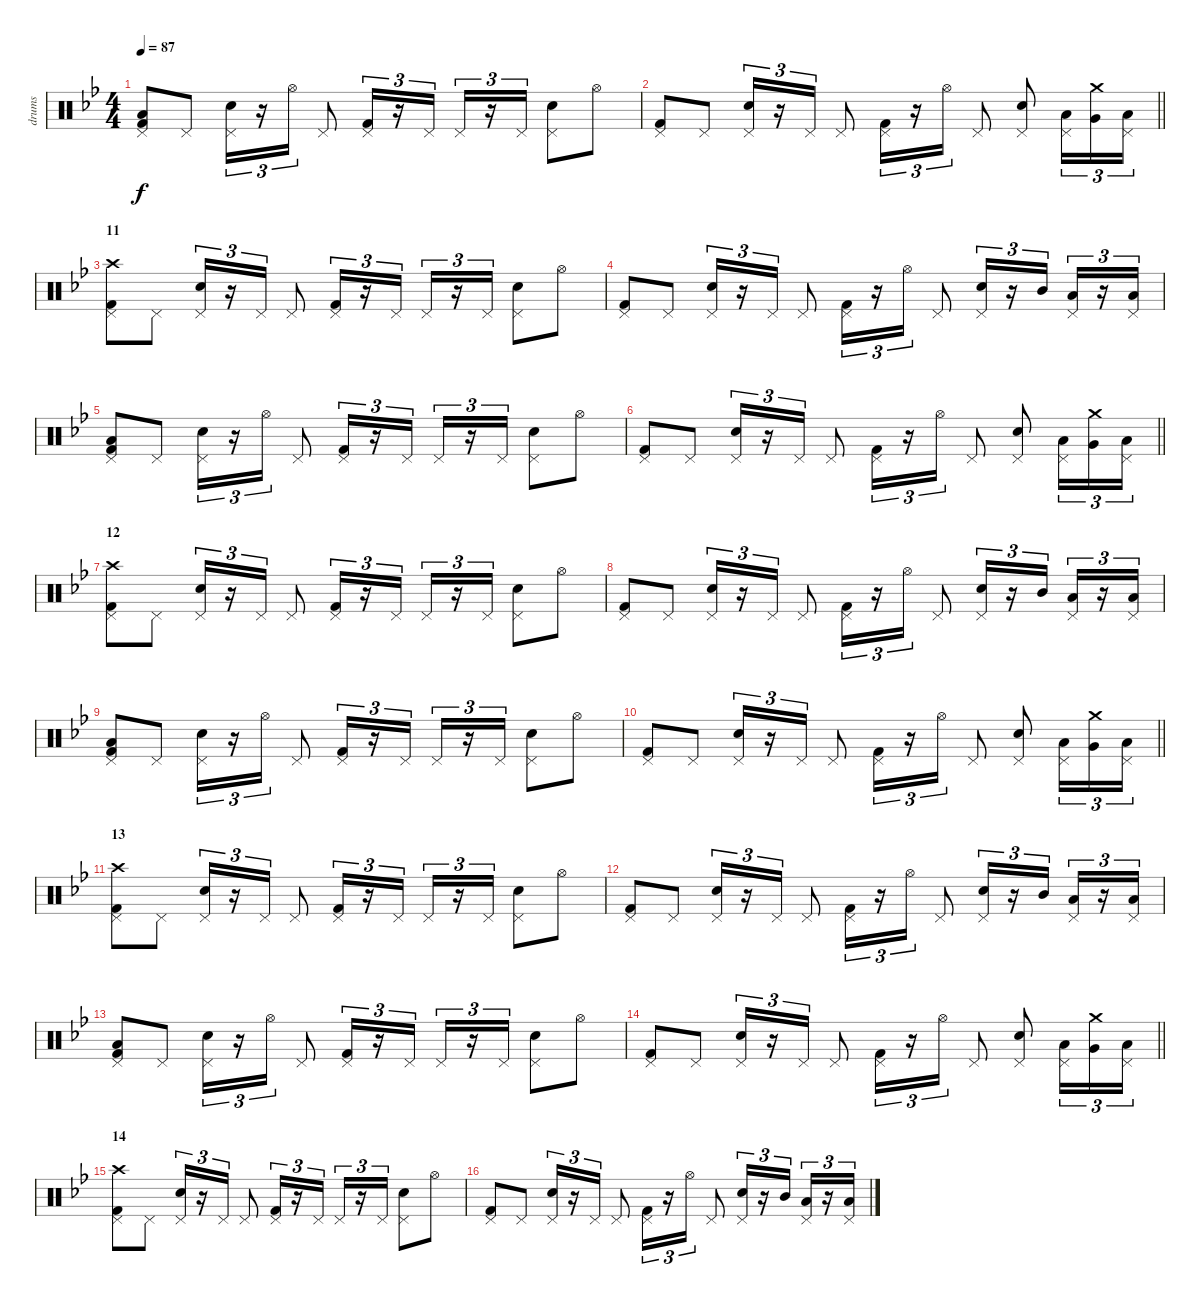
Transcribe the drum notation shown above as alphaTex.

\track ("drums" "drums") {instrument percussion}
\staff {score}
\articulation defaults
\ts (4 4)
\tempo 87
\clef neutral
\ks gminor
("Pedal Hi-Hat (hit)" "Low Floor Tom (hit)" "Kick (hit) 2").8{dy f} "Pedal Hi-Hat (hit)".8 ("Pedal Hi-Hat (hit)" "Electric Snare (hit)").16{tu (3 2)} r.16{tu (3 2)} "Hi-Hat (open)".16{tu (3 2)} "Pedal Hi-Hat (hit)".8 ("Pedal Hi-Hat (hit)" "Kick (hit) 2").16{tu (3 2)} r.16{tu (3 2)} "Pedal Hi-Hat (hit)".16{tu (3 2)} "Pedal Hi-Hat (hit)".16{tu (3 2)} r.16{tu (3 2)} "Pedal Hi-Hat (hit)".16{tu (3 2)} ("Pedal Hi-Hat (hit)" "Electric Snare (hit)").8 "Hi-Hat (open)".8 |
\barLineRight lightlight
("Pedal Hi-Hat (hit)" "Kick (hit) 2").8 "Pedal Hi-Hat (hit)".8 ("Pedal Hi-Hat (hit)" "Electric Snare (hit)").16{tu (3 2)} r.16{tu (3 2)} "Pedal Hi-Hat (hit)".16{tu (3 2)} "Pedal Hi-Hat (hit)".8 ("Pedal Hi-Hat (hit)" "Kick (hit) 2").16{tu (3 2)} r.16{tu (3 2)} "Hi-Hat (open)".16{tu (3 2)} "Pedal Hi-Hat (hit)".8 ("Pedal Hi-Hat (hit)" "Electric Snare (hit)").8 ("Pedal Hi-Hat (hit)" "Low Tom (hit)").16{tu (3 2)} ("Crash medium (hit)" "Very Low Tom (hit)").16{tu (3 2)} ("Pedal Hi-Hat (hit)" "Low Floor Tom (hit)").16{tu (3 2)} |
\section ("" "11")
("Crash high (hit)" "Pedal Hi-Hat (hit)" "Kick (hit) 2").8 "Pedal Hi-Hat (hit)".8 ("Pedal Hi-Hat (hit)" "Electric Snare (hit)").16{tu (3 2)} r.16{tu (3 2)} "Pedal Hi-Hat (hit)".16{tu (3 2)} "Pedal Hi-Hat (hit)".8 ("Pedal Hi-Hat (hit)" "Kick (hit) 2").16{tu (3 2)} r.16{tu (3 2)} "Pedal Hi-Hat (hit)".16{tu (3 2)} "Pedal Hi-Hat (hit)".16{tu (3 2)} r.16{tu (3 2)} "Pedal Hi-Hat (hit)".16{tu (3 2)} ("Pedal Hi-Hat (hit)" "Electric Snare (hit)").8 "Hi-Hat (open)".8 |
("Pedal Hi-Hat (hit)" "Kick (hit) 2").8 "Pedal Hi-Hat (hit)".8 ("Pedal Hi-Hat (hit)" "Electric Snare (hit)").16{tu (3 2)} r.16{tu (3 2)} "Pedal Hi-Hat (hit)".16{tu (3 2)} "Pedal Hi-Hat (hit)".8 ("Pedal Hi-Hat (hit)" "Kick (hit) 2").16{tu (3 2)} r.16{tu (3 2)} "Hi-Hat (open)".16{tu (3 2)} "Pedal Hi-Hat (hit)".8 ("Pedal Hi-Hat (hit)" "Electric Snare (hit)").16{tu (3 2)} r.16{tu (3 2)} "Mid Tom (hit)".16{tu (3 2)} ("Pedal Hi-Hat (hit)" "Low Tom (hit)").16{tu (3 2)} r.16{tu (3 2)} ("Pedal Hi-Hat (hit)" "Low Floor Tom (hit)").16{tu (3 2)} |
("Pedal Hi-Hat (hit)" "Low Floor Tom (hit)" "Kick (hit) 2").8 "Pedal Hi-Hat (hit)".8 ("Pedal Hi-Hat (hit)" "Electric Snare (hit)").16{tu (3 2)} r.16{tu (3 2)} "Hi-Hat (open)".16{tu (3 2)} "Pedal Hi-Hat (hit)".8 ("Pedal Hi-Hat (hit)" "Kick (hit) 2").16{tu (3 2)} r.16{tu (3 2)} "Pedal Hi-Hat (hit)".16{tu (3 2)} "Pedal Hi-Hat (hit)".16{tu (3 2)} r.16{tu (3 2)} "Pedal Hi-Hat (hit)".16{tu (3 2)} ("Pedal Hi-Hat (hit)" "Electric Snare (hit)").8 "Hi-Hat (open)".8 |
\barLineRight lightlight
("Pedal Hi-Hat (hit)" "Kick (hit) 2").8 "Pedal Hi-Hat (hit)".8 ("Pedal Hi-Hat (hit)" "Electric Snare (hit)").16{tu (3 2)} r.16{tu (3 2)} "Pedal Hi-Hat (hit)".16{tu (3 2)} "Pedal Hi-Hat (hit)".8 ("Pedal Hi-Hat (hit)" "Kick (hit) 2").16{tu (3 2)} r.16{tu (3 2)} "Hi-Hat (open)".16{tu (3 2)} "Pedal Hi-Hat (hit)".8 ("Pedal Hi-Hat (hit)" "Electric Snare (hit)").8 ("Pedal Hi-Hat (hit)" "Low Tom (hit)").16{tu (3 2)} ("Crash medium (hit)" "Very Low Tom (hit)").16{tu (3 2)} ("Pedal Hi-Hat (hit)" "Low Floor Tom (hit)").16{tu (3 2)} |
\section ("" "12")
("Crash high (hit)" "Pedal Hi-Hat (hit)" "Kick (hit) 2").8 "Pedal Hi-Hat (hit)".8 ("Pedal Hi-Hat (hit)" "Electric Snare (hit)").16{tu (3 2)} r.16{tu (3 2)} "Pedal Hi-Hat (hit)".16{tu (3 2)} "Pedal Hi-Hat (hit)".8 ("Pedal Hi-Hat (hit)" "Kick (hit) 2").16{tu (3 2)} r.16{tu (3 2)} "Pedal Hi-Hat (hit)".16{tu (3 2)} "Pedal Hi-Hat (hit)".16{tu (3 2)} r.16{tu (3 2)} "Pedal Hi-Hat (hit)".16{tu (3 2)} ("Pedal Hi-Hat (hit)" "Electric Snare (hit)").8 "Hi-Hat (open)".8 |
("Pedal Hi-Hat (hit)" "Kick (hit) 2").8 "Pedal Hi-Hat (hit)".8 ("Pedal Hi-Hat (hit)" "Electric Snare (hit)").16{tu (3 2)} r.16{tu (3 2)} "Pedal Hi-Hat (hit)".16{tu (3 2)} "Pedal Hi-Hat (hit)".8 ("Pedal Hi-Hat (hit)" "Kick (hit) 2").16{tu (3 2)} r.16{tu (3 2)} "Hi-Hat (open)".16{tu (3 2)} "Pedal Hi-Hat (hit)".8 ("Pedal Hi-Hat (hit)" "Electric Snare (hit)").16{tu (3 2)} r.16{tu (3 2)} "Mid Tom (hit)".16{tu (3 2)} ("Pedal Hi-Hat (hit)" "Low Tom (hit)").16{tu (3 2)} r.16{tu (3 2)} ("Pedal Hi-Hat (hit)" "Low Floor Tom (hit)").16{tu (3 2)} |
("Pedal Hi-Hat (hit)" "Low Floor Tom (hit)" "Kick (hit) 2").8 "Pedal Hi-Hat (hit)".8 ("Pedal Hi-Hat (hit)" "Electric Snare (hit)").16{tu (3 2)} r.16{tu (3 2)} "Hi-Hat (open)".16{tu (3 2)} "Pedal Hi-Hat (hit)".8 ("Pedal Hi-Hat (hit)" "Kick (hit) 2").16{tu (3 2)} r.16{tu (3 2)} "Pedal Hi-Hat (hit)".16{tu (3 2)} "Pedal Hi-Hat (hit)".16{tu (3 2)} r.16{tu (3 2)} "Pedal Hi-Hat (hit)".16{tu (3 2)} ("Pedal Hi-Hat (hit)" "Electric Snare (hit)").8 "Hi-Hat (open)".8 |
\barLineRight lightlight
("Pedal Hi-Hat (hit)" "Kick (hit) 2").8 "Pedal Hi-Hat (hit)".8 ("Pedal Hi-Hat (hit)" "Electric Snare (hit)").16{tu (3 2)} r.16{tu (3 2)} "Pedal Hi-Hat (hit)".16{tu (3 2)} "Pedal Hi-Hat (hit)".8 ("Pedal Hi-Hat (hit)" "Kick (hit) 2").16{tu (3 2)} r.16{tu (3 2)} "Hi-Hat (open)".16{tu (3 2)} "Pedal Hi-Hat (hit)".8 ("Pedal Hi-Hat (hit)" "Electric Snare (hit)").8 ("Pedal Hi-Hat (hit)" "Low Tom (hit)").16{tu (3 2)} ("Crash medium (hit)" "Very Low Tom (hit)").16{tu (3 2)} ("Pedal Hi-Hat (hit)" "Low Floor Tom (hit)").16{tu (3 2)} |
\section ("" "13")
("Crash high (hit)" "Pedal Hi-Hat (hit)" "Kick (hit) 2").8 "Pedal Hi-Hat (hit)".8 ("Pedal Hi-Hat (hit)" "Electric Snare (hit)").16{tu (3 2)} r.16{tu (3 2)} "Pedal Hi-Hat (hit)".16{tu (3 2)} "Pedal Hi-Hat (hit)".8 ("Pedal Hi-Hat (hit)" "Kick (hit) 2").16{tu (3 2)} r.16{tu (3 2)} "Pedal Hi-Hat (hit)".16{tu (3 2)} "Pedal Hi-Hat (hit)".16{tu (3 2)} r.16{tu (3 2)} "Pedal Hi-Hat (hit)".16{tu (3 2)} ("Pedal Hi-Hat (hit)" "Electric Snare (hit)").8 "Hi-Hat (open)".8 |
("Pedal Hi-Hat (hit)" "Kick (hit) 2").8 "Pedal Hi-Hat (hit)".8 ("Pedal Hi-Hat (hit)" "Electric Snare (hit)").16{tu (3 2)} r.16{tu (3 2)} "Pedal Hi-Hat (hit)".16{tu (3 2)} "Pedal Hi-Hat (hit)".8 ("Pedal Hi-Hat (hit)" "Kick (hit) 2").16{tu (3 2)} r.16{tu (3 2)} "Hi-Hat (open)".16{tu (3 2)} "Pedal Hi-Hat (hit)".8 ("Pedal Hi-Hat (hit)" "Electric Snare (hit)").16{tu (3 2)} r.16{tu (3 2)} "Mid Tom (hit)".16{tu (3 2)} ("Pedal Hi-Hat (hit)" "Low Tom (hit)").16{tu (3 2)} r.16{tu (3 2)} ("Pedal Hi-Hat (hit)" "Low Floor Tom (hit)").16{tu (3 2)} |
("Pedal Hi-Hat (hit)" "Low Floor Tom (hit)" "Kick (hit) 2").8 "Pedal Hi-Hat (hit)".8 ("Pedal Hi-Hat (hit)" "Electric Snare (hit)").16{tu (3 2)} r.16{tu (3 2)} "Hi-Hat (open)".16{tu (3 2)} "Pedal Hi-Hat (hit)".8 ("Pedal Hi-Hat (hit)" "Kick (hit) 2").16{tu (3 2)} r.16{tu (3 2)} "Pedal Hi-Hat (hit)".16{tu (3 2)} "Pedal Hi-Hat (hit)".16{tu (3 2)} r.16{tu (3 2)} "Pedal Hi-Hat (hit)".16{tu (3 2)} ("Pedal Hi-Hat (hit)" "Electric Snare (hit)").8 "Hi-Hat (open)".8 |
\barLineRight lightlight
("Pedal Hi-Hat (hit)" "Kick (hit) 2").8 "Pedal Hi-Hat (hit)".8 ("Pedal Hi-Hat (hit)" "Electric Snare (hit)").16{tu (3 2)} r.16{tu (3 2)} "Pedal Hi-Hat (hit)".16{tu (3 2)} "Pedal Hi-Hat (hit)".8 ("Pedal Hi-Hat (hit)" "Kick (hit) 2").16{tu (3 2)} r.16{tu (3 2)} "Hi-Hat (open)".16{tu (3 2)} "Pedal Hi-Hat (hit)".8 ("Pedal Hi-Hat (hit)" "Electric Snare (hit)").8 ("Pedal Hi-Hat (hit)" "Low Tom (hit)").16{tu (3 2)} ("Crash medium (hit)" "Very Low Tom (hit)").16{tu (3 2)} ("Pedal Hi-Hat (hit)" "Low Floor Tom (hit)").16{tu (3 2)} |
\section ("" "14")
("Crash high (hit)" "Pedal Hi-Hat (hit)" "Kick (hit) 2").8 "Pedal Hi-Hat (hit)".8 ("Pedal Hi-Hat (hit)" "Electric Snare (hit)").16{tu (3 2)} r.16{tu (3 2)} "Pedal Hi-Hat (hit)".16{tu (3 2)} "Pedal Hi-Hat (hit)".8 ("Pedal Hi-Hat (hit)" "Kick (hit) 2").16{tu (3 2)} r.16{tu (3 2)} "Pedal Hi-Hat (hit)".16{tu (3 2)} "Pedal Hi-Hat (hit)".16{tu (3 2)} r.16{tu (3 2)} "Pedal Hi-Hat (hit)".16{tu (3 2)} ("Pedal Hi-Hat (hit)" "Electric Snare (hit)").8 "Hi-Hat (open)".8 |
("Pedal Hi-Hat (hit)" "Kick (hit) 2").8 "Pedal Hi-Hat (hit)".8 ("Pedal Hi-Hat (hit)" "Electric Snare (hit)").16{tu (3 2)} r.16{tu (3 2)} "Pedal Hi-Hat (hit)".16{tu (3 2)} "Pedal Hi-Hat (hit)".8 ("Pedal Hi-Hat (hit)" "Kick (hit) 2").16{tu (3 2)} r.16{tu (3 2)} "Hi-Hat (open)".16{tu (3 2)} "Pedal Hi-Hat (hit)".8 ("Pedal Hi-Hat (hit)" "Electric Snare (hit)").16{tu (3 2)} r.16{tu (3 2)} "Mid Tom (hit)".16{tu (3 2)} ("Pedal Hi-Hat (hit)" "Low Tom (hit)").16{tu (3 2)} r.16{tu (3 2)} ("Pedal Hi-Hat (hit)" "Low Floor Tom (hit)").16{tu (3 2)}
